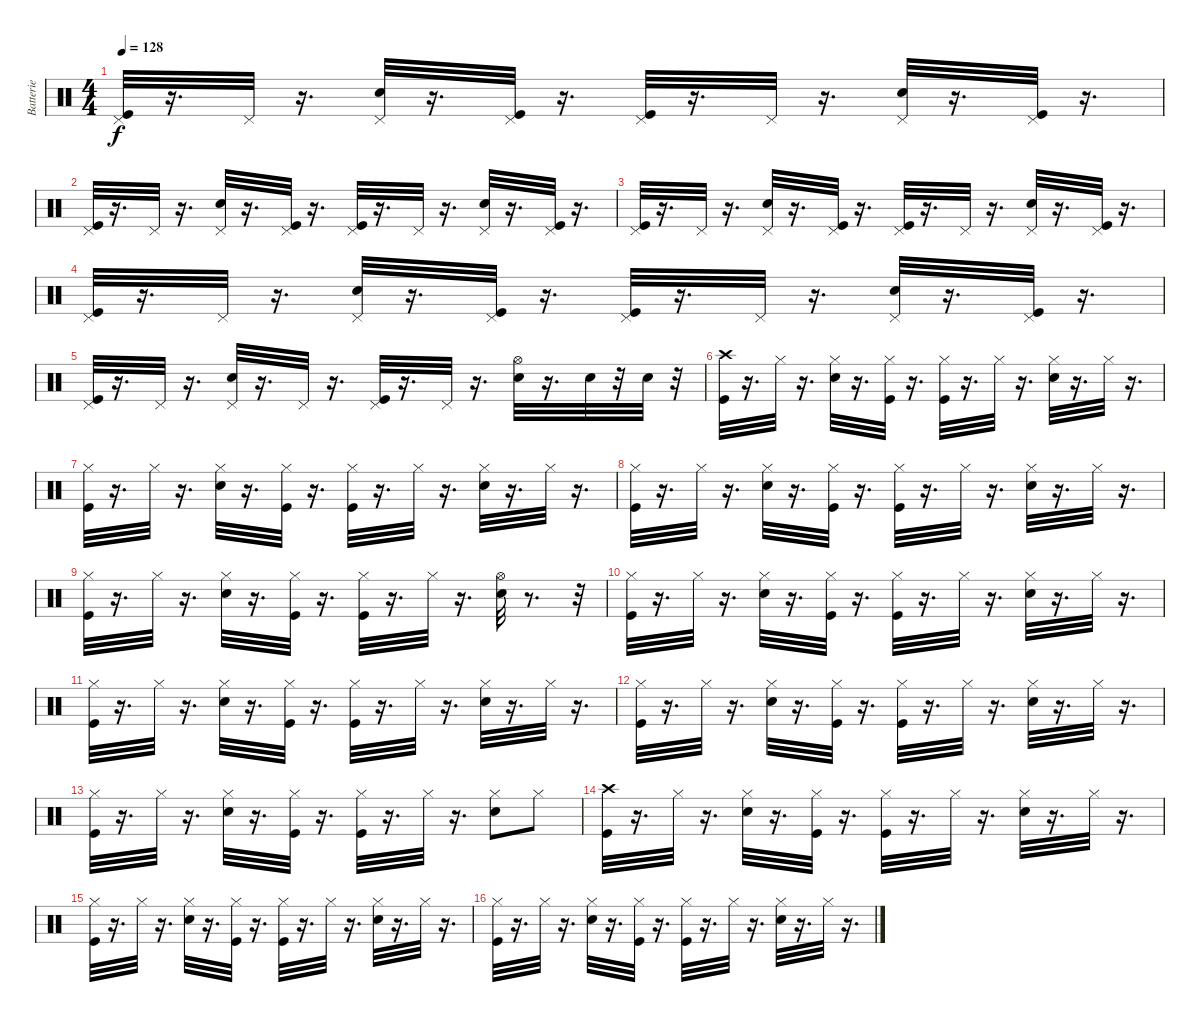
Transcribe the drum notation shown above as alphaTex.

\track ("Batterie" "Batterie") {instrument percussion}
\staff {score}
\articulation defaults
\ts (4 4)
\tempo 128
\clef neutral
\ks c
("Pedal Hi-Hat (hit)" "Kick (hit)").32{dy f} r.16{d} "Pedal Hi-Hat (hit)".32 r.16{d} ("Pedal Hi-Hat (hit)" "Snare (hit) 2").32 r.16{d} ("Pedal Hi-Hat (hit)" "Kick (hit)").32 r.16{d} ("Pedal Hi-Hat (hit)" "Kick (hit)").32 r.16{d} "Pedal Hi-Hat (hit)".32 r.16{d} ("Pedal Hi-Hat (hit)" "Snare (hit) 2").32 r.16{d} ("Pedal Hi-Hat (hit)" "Kick (hit)").32 r.16{d} |
("Pedal Hi-Hat (hit)" "Kick (hit)").32 r.16{d} "Pedal Hi-Hat (hit)".32 r.16{d} ("Pedal Hi-Hat (hit)" "Snare (hit) 2").32 r.16{d} ("Pedal Hi-Hat (hit)" "Kick (hit)").32 r.16{d} ("Pedal Hi-Hat (hit)" "Kick (hit)").32 r.16{d} "Pedal Hi-Hat (hit)".32 r.16{d} ("Pedal Hi-Hat (hit)" "Snare (hit) 2").32 r.16{d} ("Pedal Hi-Hat (hit)" "Kick (hit)").32 r.16{d} |
("Pedal Hi-Hat (hit)" "Kick (hit)").32 r.16{d} "Pedal Hi-Hat (hit)".32 r.16{d} ("Pedal Hi-Hat (hit)" "Snare (hit) 2").32 r.16{d} ("Pedal Hi-Hat (hit)" "Kick (hit)").32 r.16{d} ("Pedal Hi-Hat (hit)" "Kick (hit)").32 r.16{d} "Pedal Hi-Hat (hit)".32 r.16{d} ("Pedal Hi-Hat (hit)" "Snare (hit) 2").32 r.16{d} ("Pedal Hi-Hat (hit)" "Kick (hit)").32 r.16{d} |
("Pedal Hi-Hat (hit)" "Kick (hit)").32 r.16{d} "Pedal Hi-Hat (hit)".32 r.16{d} ("Pedal Hi-Hat (hit)" "Snare (hit) 2").32 r.16{d} ("Pedal Hi-Hat (hit)" "Kick (hit)").32 r.16{d} ("Pedal Hi-Hat (hit)" "Kick (hit)").32 r.16{d} "Pedal Hi-Hat (hit)".32 r.16{d} ("Pedal Hi-Hat (hit)" "Snare (hit) 2").32 r.16{d} ("Pedal Hi-Hat (hit)" "Kick (hit)").32 r.16{d} |
("Pedal Hi-Hat (hit)" "Kick (hit)").32 r.16{d} "Pedal Hi-Hat (hit)".32 r.16{d} ("Pedal Hi-Hat (hit)" "Snare (hit) 2").32 r.16{d} "Pedal Hi-Hat (hit)".32 r.16{d} ("Pedal Hi-Hat (hit)" "Kick (hit)").32 r.16{d} "Pedal Hi-Hat (hit)".32 r.16{d} ("Hi-Hat (open)" "Snare (hit) 2").32 r.16{d} "Snare (hit) 2".32 r.32 "Snare (hit) 2".32 r.32 |
("Crash high (hit)" "Kick (hit)").32 r.16{d} "Hi-Hat (closed)".32 r.16{d} ("Snare (hit) 2" "Hi-Hat (closed)").32 r.16{d} ("Kick (hit)" "Hi-Hat (closed)").32 r.16{d} ("Kick (hit)" "Hi-Hat (closed)").32 r.16{d} "Hi-Hat (closed)".32 r.16{d} ("Snare (hit) 2" "Hi-Hat (closed)").32 r.16{d} "Hi-Hat (closed)".32 r.16{d} |
("Kick (hit)" "Hi-Hat (closed)").32 r.16{d} "Hi-Hat (closed)".32 r.16{d} ("Snare (hit) 2" "Hi-Hat (closed)").32 r.16{d} ("Kick (hit)" "Hi-Hat (closed)").32 r.16{d} ("Kick (hit)" "Hi-Hat (closed)").32 r.16{d} "Hi-Hat (closed)".32 r.16{d} ("Snare (hit) 2" "Hi-Hat (closed)").32 r.16{d} "Hi-Hat (closed)".32 r.16{d} |
("Kick (hit)" "Hi-Hat (closed)").32 r.16{d} "Hi-Hat (closed)".32 r.16{d} ("Snare (hit) 2" "Hi-Hat (closed)").32 r.16{d} ("Kick (hit)" "Hi-Hat (closed)").32 r.16{d} ("Kick (hit)" "Hi-Hat (closed)").32 r.16{d} "Hi-Hat (closed)".32 r.16{d} ("Snare (hit) 2" "Hi-Hat (closed)").32 r.16{d} "Hi-Hat (closed)".32 r.16{d} |
("Kick (hit)" "Hi-Hat (closed)").32 r.16{d} "Hi-Hat (closed)".32 r.16{d} ("Snare (hit) 2" "Hi-Hat (closed)").32 r.16{d} ("Kick (hit)" "Hi-Hat (closed)").32 r.16{d} ("Kick (hit)" "Hi-Hat (closed)").32 r.16{d} "Hi-Hat (closed)".32 r.16{d} ("Hi-Hat (open)" "Snare (hit) 2").32 r.8{d} r.32 |
("Kick (hit)" "Hi-Hat (closed)").32 r.16{d} "Hi-Hat (closed)".32 r.16{d} ("Snare (hit) 2" "Hi-Hat (closed)").32 r.16{d} ("Kick (hit)" "Hi-Hat (closed)").32 r.16{d} ("Kick (hit)" "Hi-Hat (closed)").32 r.16{d} "Hi-Hat (closed)".32 r.16{d} ("Snare (hit) 2" "Hi-Hat (closed)").32 r.16{d} "Hi-Hat (closed)".32 r.16{d} |
("Kick (hit)" "Hi-Hat (closed)").32 r.16{d} "Hi-Hat (closed)".32 r.16{d} ("Snare (hit) 2" "Hi-Hat (closed)").32 r.16{d} ("Kick (hit)" "Hi-Hat (closed)").32 r.16{d} ("Kick (hit)" "Hi-Hat (closed)").32 r.16{d} "Hi-Hat (closed)".32 r.16{d} ("Snare (hit) 2" "Hi-Hat (closed)").32 r.16{d} "Hi-Hat (closed)".32 r.16{d} |
("Kick (hit)" "Hi-Hat (closed)").32 r.16{d} "Hi-Hat (closed)".32 r.16{d} ("Snare (hit) 2" "Hi-Hat (closed)").32 r.16{d} ("Kick (hit)" "Hi-Hat (closed)").32 r.16{d} ("Kick (hit)" "Hi-Hat (closed)").32 r.16{d} "Hi-Hat (closed)".32 r.16{d} ("Snare (hit) 2" "Hi-Hat (closed)").32 r.16{d} "Hi-Hat (closed)".32 r.16{d} |
("Kick (hit)" "Hi-Hat (closed)").32 r.16{d} "Hi-Hat (closed)".32 r.16{d} ("Snare (hit) 2" "Hi-Hat (closed)").32 r.16{d} ("Kick (hit)" "Hi-Hat (closed)").32 r.16{d} ("Kick (hit)" "Hi-Hat (closed)").32 r.16{d} "Hi-Hat (closed)".32 r.16{d} ("Hi-Hat (closed)" "Snare (hit) 2").8 "Hi-Hat (closed)".8 |
("Crash high (hit)" "Kick (hit)").32 r.16{d} "Hi-Hat (closed)".32 r.16{d} ("Snare (hit) 2" "Hi-Hat (closed)").32 r.16{d} ("Kick (hit)" "Hi-Hat (closed)").32 r.16{d} ("Kick (hit)" "Hi-Hat (closed)").32 r.16{d} "Hi-Hat (closed)".32 r.16{d} ("Snare (hit) 2" "Hi-Hat (closed)").32 r.16{d} "Hi-Hat (closed)".32 r.16{d} |
("Kick (hit)" "Hi-Hat (closed)").32 r.16{d} "Hi-Hat (closed)".32 r.16{d} ("Snare (hit) 2" "Hi-Hat (closed)").32 r.16{d} ("Kick (hit)" "Hi-Hat (closed)").32 r.16{d} ("Kick (hit)" "Hi-Hat (closed)").32 r.16{d} "Hi-Hat (closed)".32 r.16{d} ("Snare (hit) 2" "Hi-Hat (closed)").32 r.16{d} "Hi-Hat (closed)".32 r.16{d} |
("Kick (hit)" "Hi-Hat (closed)").32 r.16{d} "Hi-Hat (closed)".32 r.16{d} ("Snare (hit) 2" "Hi-Hat (closed)").32 r.16{d} ("Kick (hit)" "Hi-Hat (closed)").32 r.16{d} ("Kick (hit)" "Hi-Hat (closed)").32 r.16{d} "Hi-Hat (closed)".32 r.16{d} ("Snare (hit) 2" "Hi-Hat (closed)").32 r.16{d} "Hi-Hat (closed)".32 r.16{d}
